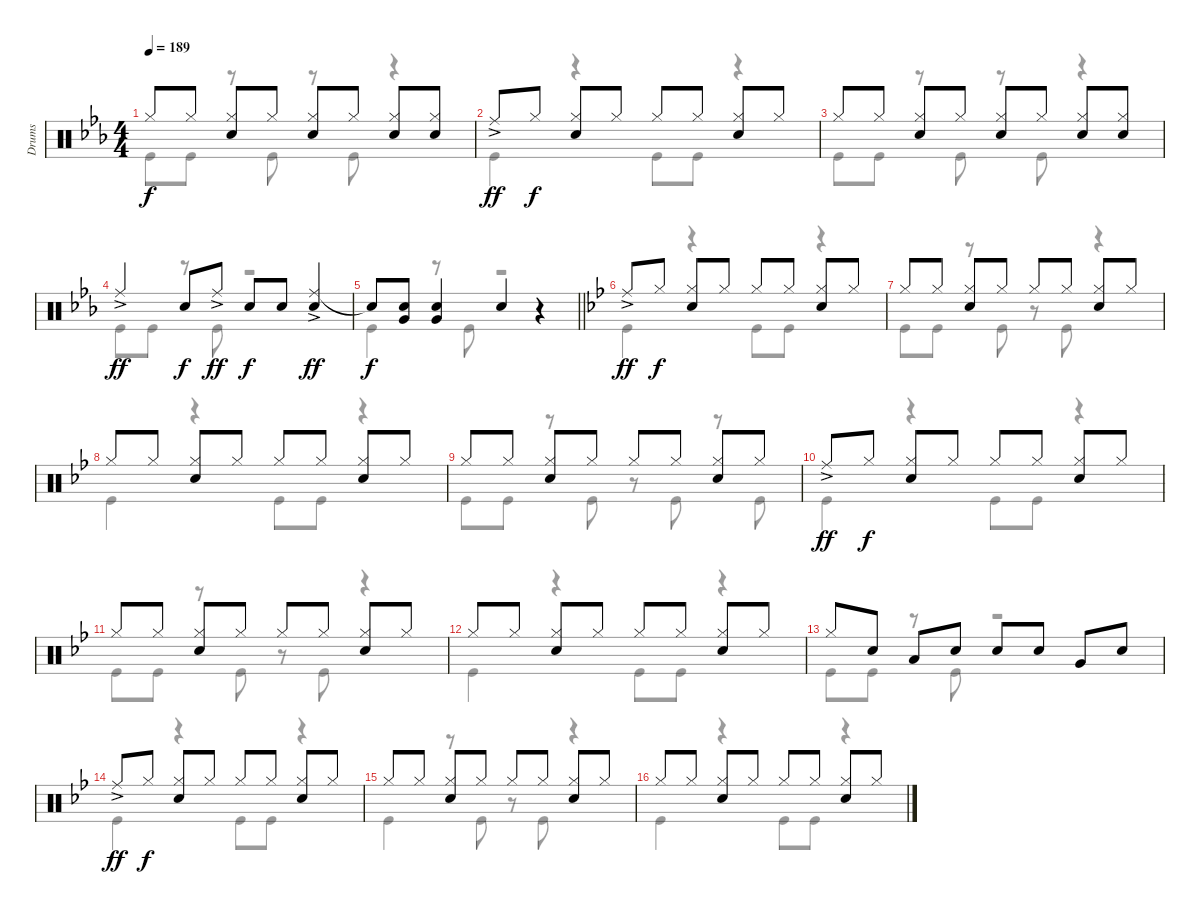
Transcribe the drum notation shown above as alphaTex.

\track ("Drums" "Drums") {instrument percussion}
\staff {score}
\articulation defaults
\voice
\ts (4 4)
\tempo 189
\clef neutral
\ks eb "Hi-Hat (closed)".8{dy f} "Hi-Hat (closed)".8
("Hi-Hat (closed)" "Snare (hit) 2").8 "Hi-Hat (closed)".8 ("Hi-Hat (closed)" "Snare (hit) 2").8 "Hi-Hat (closed)".8 ("Hi-Hat (closed)" "Snare (hit) 2").8 ("Hi-Hat (closed)" "Snare (hit) 2").8 |
"Ride (middle)"{ac}.8{dy ff} "Hi-Hat (closed)".8{dy f} ("Hi-Hat (closed)" "Snare (hit) 2").8 "Hi-Hat (closed)".8 "Hi-Hat (closed)".8 "Hi-Hat (closed)".8 ("Hi-Hat (closed)" "Snare (hit) 2").8 "Hi-Hat (closed)".8 |
"Hi-Hat (closed)".8 "Hi-Hat (closed)".8 ("Hi-Hat (closed)" "Snare (hit) 2").8 "Hi-Hat (closed)".8 ("Hi-Hat (closed)" "Snare (hit) 2").8 "Hi-Hat (closed)".8 ("Hi-Hat (closed)" "Snare (hit) 2").8 ("Hi-Hat (closed)" "Snare (hit) 2").8 |
"Ride (middle)"{ac}.4{dy ff} "Snare (hit) 2".8{dy f} "Ride (middle)"{ac}.8{dy ff} "Snare (hit) 2".8{dy f} "Snare (hit) 2".8 ("Ride (middle)"{ac} "Snare (hit) 2").4{dy ff} |
\barLineRight lightlight "Snare (hit)"{t}.8{dy f}
("Snare (hit) 2" "Very Low Tom (hit)").8 ("Snare (hit) 2" "Very Low Tom (hit)").4 "Snare (hit) 2".4 r.4 |
\ks bb "Ride (middle)"{ac}.8{dy ff} "Hi-Hat (closed)".8{dy f}
("Hi-Hat (closed)" "Snare (hit) 2").8 "Hi-Hat (closed)".8 "Hi-Hat (closed)".8 "Hi-Hat (closed)".8 ("Hi-Hat (closed)" "Snare (hit) 2").8 "Hi-Hat (closed)".8 |
"Hi-Hat (closed)".8 "Hi-Hat (closed)".8 ("Hi-Hat (closed)" "Snare (hit) 2").8 "Hi-Hat (closed)".8 "Hi-Hat (closed)".8 "Hi-Hat (closed)".8 ("Hi-Hat (closed)" "Snare (hit) 2").8 "Hi-Hat (closed)".8 |
"Hi-Hat (closed)".8 "Hi-Hat (closed)".8 ("Hi-Hat (closed)" "Snare (hit) 2").8 "Hi-Hat (closed)".8 "Hi-Hat (closed)".8 "Hi-Hat (closed)".8 ("Hi-Hat (closed)" "Snare (hit) 2").8 "Hi-Hat (closed)".8 |
"Hi-Hat (closed)".8 "Hi-Hat (closed)".8 ("Hi-Hat (closed)" "Snare (hit) 2").8 "Hi-Hat (closed)".8 "Hi-Hat (closed)".8 "Hi-Hat (closed)".8 ("Hi-Hat (closed)" "Snare (hit) 2").8 "Hi-Hat (closed)".8 |
"Ride (middle)"{ac}.8{dy ff} "Hi-Hat (closed)".8{dy f} ("Hi-Hat (closed)" "Snare (hit) 2").8 "Hi-Hat (closed)".8 "Hi-Hat (closed)".8 "Hi-Hat (closed)".8 ("Hi-Hat (closed)" "Snare (hit) 2").8 "Hi-Hat (closed)".8 |
"Hi-Hat (closed)".8 "Hi-Hat (closed)".8 ("Hi-Hat (closed)" "Snare (hit) 2").8 "Hi-Hat (closed)".8 "Hi-Hat (closed)".8 "Hi-Hat (closed)".8 ("Hi-Hat (closed)" "Snare (hit) 2").8 "Hi-Hat (closed)".8 |
"Hi-Hat (closed)".8 "Hi-Hat (closed)".8 ("Hi-Hat (closed)" "Snare (hit) 2").8 "Hi-Hat (closed)".8 "Hi-Hat (closed)".8 "Hi-Hat (closed)".8 ("Hi-Hat (closed)" "Snare (hit) 2").8 "Hi-Hat (closed)".8 |
"Hi-Hat (closed)".8 "Snare (hit) 2".8 "Low Tom (hit)".8 "Snare (hit) 2".8 "Snare (hit) 2".8 "Snare (hit) 2".8 "Very Low Tom (hit)".8 "Snare (hit) 2".8 |
"Ride (middle)"{ac}.8{dy ff} "Hi-Hat (closed)".8{dy f} ("Hi-Hat (closed)" "Snare (hit) 2").8 "Hi-Hat (closed)".8 "Hi-Hat (closed)".8 "Hi-Hat (closed)".8 ("Hi-Hat (closed)" "Snare (hit) 2").8 "Hi-Hat (closed)".8 |
"Hi-Hat (closed)".8 "Hi-Hat (closed)".8 ("Hi-Hat (closed)" "Snare (hit) 2").8 "Hi-Hat (closed)".8 "Hi-Hat (closed)".8 "Hi-Hat (closed)".8 ("Hi-Hat (closed)" "Snare (hit) 2").8 "Hi-Hat (closed)".8 |
"Hi-Hat (closed)".8 "Hi-Hat (closed)".8 ("Hi-Hat (closed)" "Snare (hit) 2").8 "Hi-Hat (closed)".8 "Hi-Hat (closed)".8 "Hi-Hat (closed)".8 ("Hi-Hat (closed)" "Snare (hit) 2").8 "Hi-Hat (closed)".8
\voice
\clef neutral
\ottava regular
\simile none
\ks eb "Kick (hit)".8{dy f} "Kick (hit)".8
r.8 "Kick (hit)".8 r.8 "Kick (hit)".8 r.4 |
"Kick (hit)".4 r.4 "Kick (hit)".8 "Kick (hit)".8 r.4 |
"Kick (hit)".8 "Kick (hit)".8 r.8 "Kick (hit)".8 r.8 "Kick (hit)".8 r.4 |
"Kick (hit)".8 "Kick (hit)".8 r.8 "Kick (hit)".8 r.2 |
\barLineRight lightlight "Kick (hit)".4
r.8 "Kick (hit)".8 r.2 |
\ks bb "Kick (hit)".4
r.4 "Kick (hit)".8 "Kick (hit)".8 r.4 |
"Kick (hit)".8 "Kick (hit)".8 r.8 "Kick (hit)".8 r.8 "Kick (hit)".8 r.4 |
"Kick (hit)".4 r.4 "Kick (hit)".8 "Kick (hit)".8 r.4 |
"Kick (hit)".8 "Kick (hit)".8 r.8 "Kick (hit)".8 r.8 "Kick (hit)".8 r.8 "Kick (hit)".8 |
"Kick (hit)".4 r.4 "Kick (hit)".8 "Kick (hit)".8 r.4 |
"Kick (hit)".8 "Kick (hit)".8 r.8 "Kick (hit)".8 r.8 "Kick (hit)".8 r.4 |
"Kick (hit)".4 r.4 "Kick (hit)".8 "Kick (hit)".8 r.4 |
"Kick (hit)".8 "Kick (hit)".8 r.8 "Kick (hit)".8 r.2 |
"Kick (hit)".4 r.4 "Kick (hit)".8 "Kick (hit)".8 r.4 |
"Kick (hit)".4 r.8 "Kick (hit)".8 r.8 "Kick (hit)".8 r.4 |
"Kick (hit)".4 r.4 "Kick (hit)".8 "Kick (hit)".8 r.4
